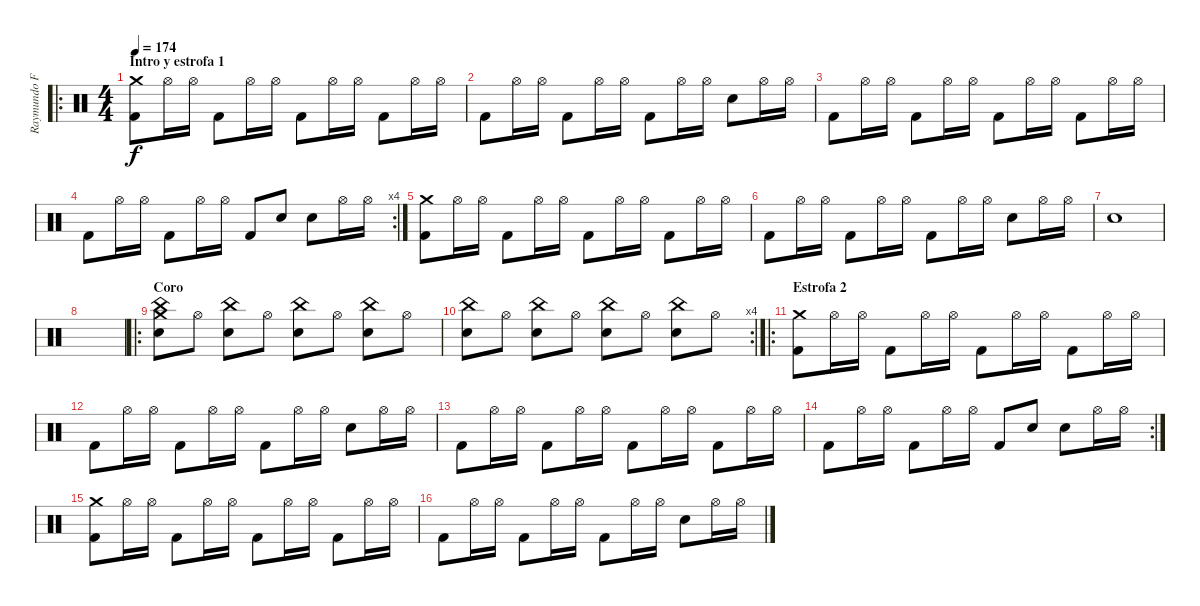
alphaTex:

\track ("Raymundo Fajardo (Batería)" "Raymundo F") {instrument percussion}
\staff {score}
\articulation defaults
\ro
\ts (4 4)
\section ("" "Intro y estrofa 1")
\tempo 174
\clef neutral
\ks c
("Crash medium (hit)" "Kick (hit) 2").8{dy f} "Hi-Hat (open)".16 "Hi-Hat (open)".16 "Kick (hit) 2".8 "Hi-Hat (open)".16 "Hi-Hat (open)".16 "Kick (hit) 2".8 "Hi-Hat (open)".16 "Hi-Hat (open)".16 "Kick (hit) 2".8 "Hi-Hat (open)".16 "Hi-Hat (open)".16 |
"Kick (hit) 2".8 "Hi-Hat (open)".16 "Hi-Hat (open)".16 "Kick (hit) 2".8 "Hi-Hat (open)".16 "Hi-Hat (open)".16 "Kick (hit) 2".8 "Hi-Hat (open)".16 "Hi-Hat (open)".16 "Snare (hit) 2".8 "Hi-Hat (open)".16 "Hi-Hat (open)".16 |
"Kick (hit) 2".8 "Hi-Hat (open)".16 "Hi-Hat (open)".16 "Kick (hit) 2".8 "Hi-Hat (open)".16 "Hi-Hat (open)".16 "Kick (hit) 2".8 "Hi-Hat (open)".16 "Hi-Hat (open)".16 "Kick (hit) 2".8 "Hi-Hat (open)".16 "Hi-Hat (open)".16 |
\rc 4 "Kick (hit) 2".8 "Hi-Hat (open)".16 "Hi-Hat (open)".16 "Kick (hit) 2".8 "Hi-Hat (open)".16 "Hi-Hat (open)".16 "Kick (hit) 2".8 "Snare (hit) 2".8 "Snare (hit) 2".8 "Hi-Hat (open)".16 "Hi-Hat (open)".16
|
("Crash medium (hit)" "Kick (hit) 2").8 "Hi-Hat (open)".16 "Hi-Hat (open)".16 "Kick (hit) 2".8 "Hi-Hat (open)".16 "Hi-Hat (open)".16 "Kick (hit) 2".8 "Hi-Hat (open)".16 "Hi-Hat (open)".16 "Kick (hit) 2".8 "Hi-Hat (open)".16 "Hi-Hat (open)".16 |
"Kick (hit) 2".8 "Hi-Hat (open)".16 "Hi-Hat (open)".16 "Kick (hit) 2".8 "Hi-Hat (open)".16 "Hi-Hat (open)".16 "Kick (hit) 2".8 "Hi-Hat (open)".16 "Hi-Hat (open)".16 "Snare (hit) 2".8 "Hi-Hat (open)".16 "Hi-Hat (open)".16 |
"Snare (hit) 2".1 |
|
\ro
\section ("" "Coro")
("Crash medium (hit)" "Snare (hit) 2" "China (hit)").8 "Hi-Hat (open)".8 ("Snare (hit) 2" "China (hit)").8 "Hi-Hat (open)".8 ("Snare (hit) 2" "China (hit)").8 "Hi-Hat (open)".8 ("Snare (hit) 2" "China (hit)").8 "Hi-Hat (open)".8 |
\rc 4
("Snare (hit) 2" "China (hit)").8 "Hi-Hat (open)".8 ("Snare (hit) 2" "China (hit)").8 "Hi-Hat (open)".8 ("Snare (hit) 2" "China (hit)").8 "Hi-Hat (open)".8 ("Snare (hit) 2" "China (hit)").8 "Hi-Hat (open)".8 |
\ro
\section ("" "Estrofa 2")
("Crash medium (hit)" "Kick (hit) 2").8 "Hi-Hat (open)".16 "Hi-Hat (open)".16 "Kick (hit) 2".8 "Hi-Hat (open)".16 "Hi-Hat (open)".16 "Kick (hit) 2".8 "Hi-Hat (open)".16 "Hi-Hat (open)".16 "Kick (hit) 2".8 "Hi-Hat (open)".16 "Hi-Hat (open)".16 |
"Kick (hit) 2".8 "Hi-Hat (open)".16 "Hi-Hat (open)".16 "Kick (hit) 2".8 "Hi-Hat (open)".16 "Hi-Hat (open)".16 "Kick (hit) 2".8 "Hi-Hat (open)".16 "Hi-Hat (open)".16 "Snare (hit) 2".8 "Hi-Hat (open)".16 "Hi-Hat (open)".16 |
"Kick (hit) 2".8 "Hi-Hat (open)".16 "Hi-Hat (open)".16 "Kick (hit) 2".8 "Hi-Hat (open)".16 "Hi-Hat (open)".16 "Kick (hit) 2".8 "Hi-Hat (open)".16 "Hi-Hat (open)".16 "Kick (hit) 2".8 "Hi-Hat (open)".16 "Hi-Hat (open)".16 |
\rc 2 "Kick (hit) 2".8 "Hi-Hat (open)".16 "Hi-Hat (open)".16 "Kick (hit) 2".8 "Hi-Hat (open)".16 "Hi-Hat (open)".16 "Kick (hit) 2".8 "Snare (hit) 2".8 "Snare (hit) 2".8 "Hi-Hat (open)".16 "Hi-Hat (open)".16
|
("Crash medium (hit)" "Kick (hit) 2").8 "Hi-Hat (open)".16 "Hi-Hat (open)".16 "Kick (hit) 2".8 "Hi-Hat (open)".16 "Hi-Hat (open)".16 "Kick (hit) 2".8 "Hi-Hat (open)".16 "Hi-Hat (open)".16 "Kick (hit) 2".8 "Hi-Hat (open)".16 "Hi-Hat (open)".16 |
"Kick (hit) 2".8 "Hi-Hat (open)".16 "Hi-Hat (open)".16 "Kick (hit) 2".8 "Hi-Hat (open)".16 "Hi-Hat (open)".16 "Kick (hit) 2".8 "Hi-Hat (open)".16 "Hi-Hat (open)".16 "Snare (hit) 2".8 "Hi-Hat (open)".16 "Hi-Hat (open)".16
